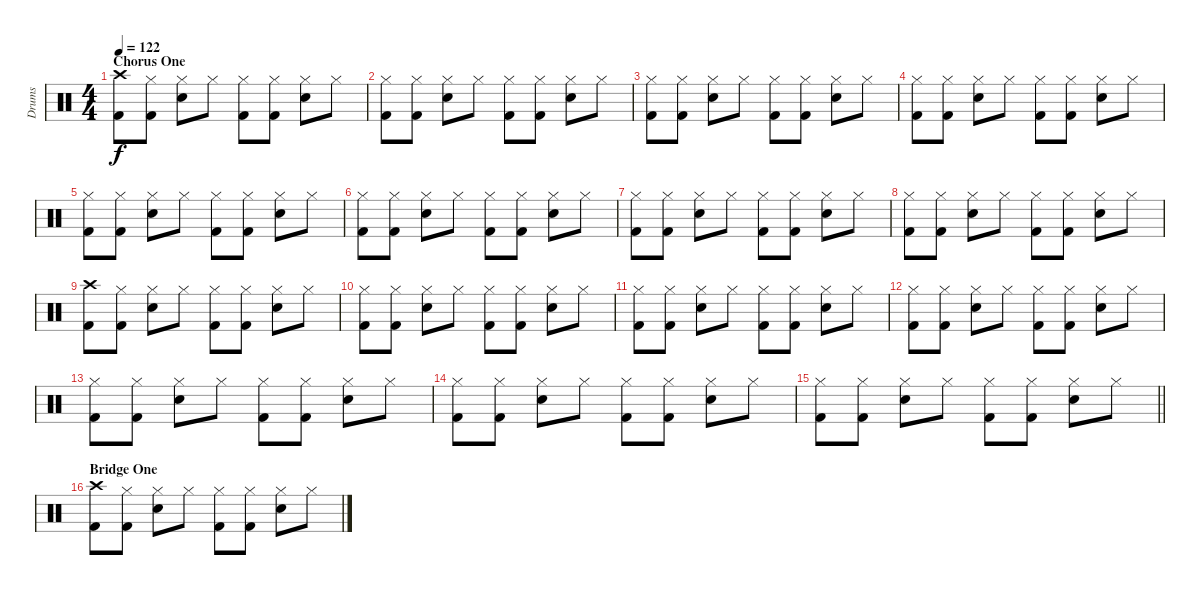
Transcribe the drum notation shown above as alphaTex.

\track ("Drums" "Drums") {instrument percussion}
\staff {score}
\articulation defaults
\ts (4 4)
\section ("" "Chorus One")
\tempo 122
\clef neutral
\ks c
("Crash high (hit)" "Kick (hit) 2").8{dy f} ("Hi-Hat (closed)" "Kick (hit) 2").8 ("Hi-Hat (closed)" "Snare (hit) 2").8 "Hi-Hat (closed)".8 ("Hi-Hat (closed)" "Kick (hit) 2").8 ("Hi-Hat (closed)" "Kick (hit) 2").8 ("Hi-Hat (closed)" "Snare (hit) 2").8 "Hi-Hat (closed)".8 |
("Hi-Hat (closed)" "Kick (hit) 2").8 ("Hi-Hat (closed)" "Kick (hit) 2").8 ("Hi-Hat (closed)" "Snare (hit) 2").8 "Hi-Hat (closed)".8 ("Hi-Hat (closed)" "Kick (hit) 2").8 ("Hi-Hat (closed)" "Kick (hit) 2").8 ("Hi-Hat (closed)" "Snare (hit) 2").8 "Hi-Hat (closed)".8 |
("Hi-Hat (closed)" "Kick (hit) 2").8 ("Hi-Hat (closed)" "Kick (hit) 2").8 ("Hi-Hat (closed)" "Snare (hit) 2").8 "Hi-Hat (closed)".8 ("Hi-Hat (closed)" "Kick (hit) 2").8 ("Hi-Hat (closed)" "Kick (hit) 2").8 ("Hi-Hat (closed)" "Snare (hit) 2").8 "Hi-Hat (closed)".8 |
("Hi-Hat (closed)" "Kick (hit) 2").8 ("Hi-Hat (closed)" "Kick (hit) 2").8 ("Hi-Hat (closed)" "Snare (hit) 2").8 "Hi-Hat (closed)".8 ("Hi-Hat (closed)" "Kick (hit) 2").8 ("Hi-Hat (closed)" "Kick (hit) 2").8 ("Hi-Hat (closed)" "Snare (hit) 2").8 "Hi-Hat (closed)".8 |
("Hi-Hat (closed)" "Kick (hit) 2").8 ("Hi-Hat (closed)" "Kick (hit) 2").8 ("Hi-Hat (closed)" "Snare (hit) 2").8 "Hi-Hat (closed)".8 ("Hi-Hat (closed)" "Kick (hit) 2").8 ("Hi-Hat (closed)" "Kick (hit) 2").8 ("Hi-Hat (closed)" "Snare (hit) 2").8 "Hi-Hat (closed)".8 |
("Hi-Hat (closed)" "Kick (hit) 2").8 ("Hi-Hat (closed)" "Kick (hit) 2").8 ("Hi-Hat (closed)" "Snare (hit) 2").8 "Hi-Hat (closed)".8 ("Hi-Hat (closed)" "Kick (hit) 2").8 ("Hi-Hat (closed)" "Kick (hit) 2").8 ("Hi-Hat (closed)" "Snare (hit) 2").8 "Hi-Hat (closed)".8 |
("Hi-Hat (closed)" "Kick (hit) 2").8 ("Hi-Hat (closed)" "Kick (hit) 2").8 ("Hi-Hat (closed)" "Snare (hit) 2").8 "Hi-Hat (closed)".8 ("Hi-Hat (closed)" "Kick (hit) 2").8 ("Hi-Hat (closed)" "Kick (hit) 2").8 ("Hi-Hat (closed)" "Snare (hit) 2").8 "Hi-Hat (closed)".8 |
("Hi-Hat (closed)" "Kick (hit) 2").8 ("Hi-Hat (closed)" "Kick (hit) 2").8 ("Hi-Hat (closed)" "Snare (hit) 2").8 "Hi-Hat (closed)".8 ("Hi-Hat (closed)" "Kick (hit) 2").8 ("Hi-Hat (closed)" "Kick (hit) 2").8 ("Hi-Hat (closed)" "Snare (hit) 2").8 "Hi-Hat (closed)".8 |
("Crash high (hit)" "Kick (hit) 2").8 ("Hi-Hat (closed)" "Kick (hit) 2").8 ("Hi-Hat (closed)" "Snare (hit) 2").8 "Hi-Hat (closed)".8 ("Hi-Hat (closed)" "Kick (hit) 2").8 ("Hi-Hat (closed)" "Kick (hit) 2").8 ("Hi-Hat (closed)" "Snare (hit) 2").8 "Hi-Hat (closed)".8 |
("Hi-Hat (closed)" "Kick (hit) 2").8 ("Hi-Hat (closed)" "Kick (hit) 2").8 ("Hi-Hat (closed)" "Snare (hit) 2").8 "Hi-Hat (closed)".8 ("Hi-Hat (closed)" "Kick (hit) 2").8 ("Hi-Hat (closed)" "Kick (hit) 2").8 ("Hi-Hat (closed)" "Snare (hit) 2").8 "Hi-Hat (closed)".8 |
("Hi-Hat (closed)" "Kick (hit) 2").8 ("Hi-Hat (closed)" "Kick (hit) 2").8 ("Hi-Hat (closed)" "Snare (hit) 2").8 "Hi-Hat (closed)".8 ("Hi-Hat (closed)" "Kick (hit) 2").8 ("Hi-Hat (closed)" "Kick (hit) 2").8 ("Hi-Hat (closed)" "Snare (hit) 2").8 "Hi-Hat (closed)".8 |
("Hi-Hat (closed)" "Kick (hit) 2").8 ("Hi-Hat (closed)" "Kick (hit) 2").8 ("Hi-Hat (closed)" "Snare (hit) 2").8 "Hi-Hat (closed)".8 ("Hi-Hat (closed)" "Kick (hit) 2").8 ("Hi-Hat (closed)" "Kick (hit) 2").8 ("Hi-Hat (closed)" "Snare (hit) 2").8 "Hi-Hat (closed)".8 |
("Hi-Hat (closed)" "Kick (hit) 2").8 ("Hi-Hat (closed)" "Kick (hit) 2").8 ("Hi-Hat (closed)" "Snare (hit) 2").8 "Hi-Hat (closed)".8 ("Hi-Hat (closed)" "Kick (hit) 2").8 ("Hi-Hat (closed)" "Kick (hit) 2").8 ("Hi-Hat (closed)" "Snare (hit) 2").8 "Hi-Hat (closed)".8 |
("Hi-Hat (closed)" "Kick (hit) 2").8 ("Hi-Hat (closed)" "Kick (hit) 2").8 ("Hi-Hat (closed)" "Snare (hit) 2").8 "Hi-Hat (closed)".8 ("Hi-Hat (closed)" "Kick (hit) 2").8 ("Hi-Hat (closed)" "Kick (hit) 2").8 ("Hi-Hat (closed)" "Snare (hit) 2").8 "Hi-Hat (closed)".8 |
\barLineRight lightlight
("Hi-Hat (closed)" "Kick (hit) 2").8 ("Hi-Hat (closed)" "Kick (hit) 2").8 ("Hi-Hat (closed)" "Snare (hit) 2").8 "Hi-Hat (closed)".8 ("Hi-Hat (closed)" "Kick (hit) 2").8 ("Hi-Hat (closed)" "Kick (hit) 2").8 ("Hi-Hat (closed)" "Snare (hit) 2").8 "Hi-Hat (closed)".8 |
\section ("" "Bridge One")
("Crash high (hit)" "Kick (hit) 2").8 ("Hi-Hat (closed)" "Kick (hit) 2").8 ("Hi-Hat (closed)" "Snare (hit) 2").8 "Hi-Hat (closed)".8 ("Hi-Hat (closed)" "Kick (hit) 2").8 ("Hi-Hat (closed)" "Kick (hit) 2").8 ("Hi-Hat (closed)" "Snare (hit) 2").8 "Hi-Hat (closed)".8
